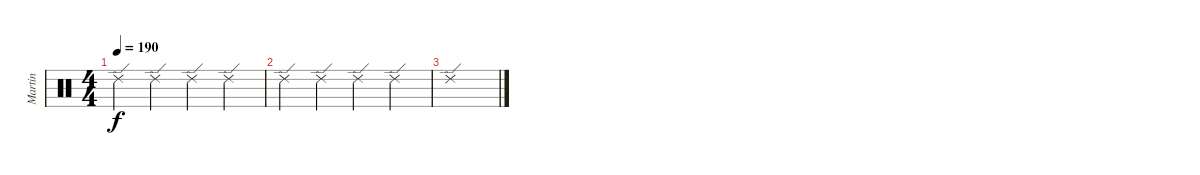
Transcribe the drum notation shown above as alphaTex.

\track ("Martin" "Martin") {instrument percussion}
\staff {score}
\articulation defaults
\ts (4 4)
\tempo 190
\clef neutral
\ks c "Ride (edge) 2".4{dy f} "Ride (edge) 2".4 "Ride (edge) 2".4 "Ride (edge) 2".4
|
"Ride (edge) 2".4 "Ride (edge) 2".4 "Ride (edge) 2".4 "Ride (edge) 2".4 |
"Ride (edge) 2".1
